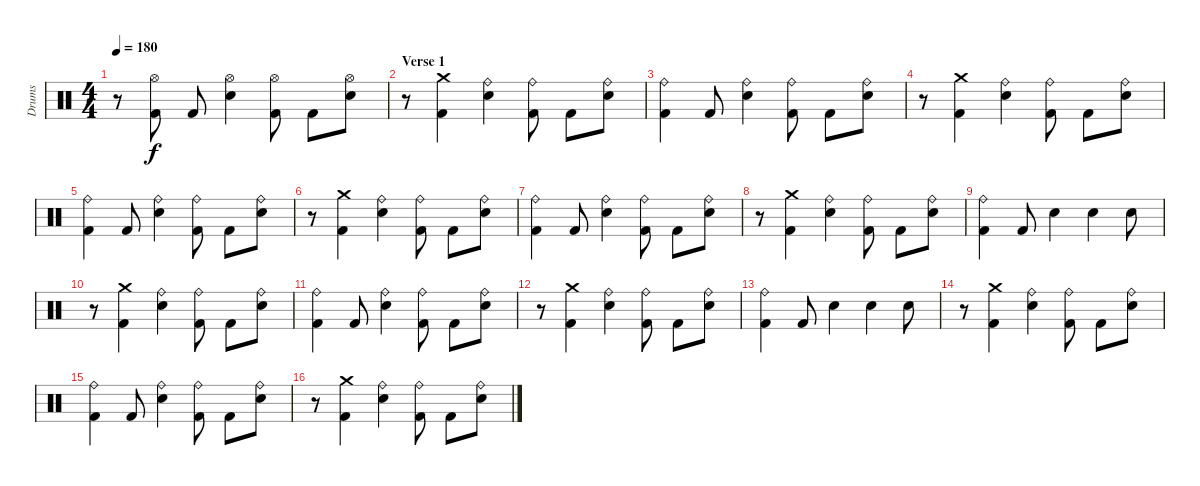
\track ("Drums" "Drums") {instrument percussion}
\staff {score}
\articulation defaults
\ts (4 4)
\tempo 180
\clef neutral
\ks c
r.8{dy f} ("Hi-Hat (open)" "Kick (hit) 2").8 "Kick (hit) 2".8 ("Hi-Hat (open)" "Snare (hit) 2").4 ("Hi-Hat (open)" "Kick (hit) 2").8 "Kick (hit) 2".8 ("Hi-Hat (open)" "Snare (hit) 2").8 |
\section ("" "Verse 1")
r.8 ("Crash medium (hit)" "Kick (hit) 2").4 ("Ride (bell)" "Snare (hit) 2").4 ("Ride (bell)" "Kick (hit) 2").8 "Kick (hit) 2".8 ("Ride (bell)" "Snare (hit) 2").8 |
("Ride (bell)" "Kick (hit) 2").4 "Kick (hit) 2".8 ("Ride (bell)" "Snare (hit) 2").4 ("Ride (bell)" "Kick (hit) 2").8 "Kick (hit) 2".8 ("Ride (bell)" "Snare (hit) 2").8 |
r.8 ("Crash medium (hit)" "Kick (hit) 2").4 ("Ride (bell)" "Snare (hit) 2").4 ("Ride (bell)" "Kick (hit) 2").8 "Kick (hit) 2".8 ("Ride (bell)" "Snare (hit) 2").8 |
("Ride (bell)" "Kick (hit) 2").4 "Kick (hit) 2".8 ("Ride (bell)" "Snare (hit) 2").4 ("Ride (bell)" "Kick (hit) 2").8 "Kick (hit) 2".8 ("Ride (bell)" "Snare (hit) 2").8 |
r.8 ("Crash medium (hit)" "Kick (hit) 2").4 ("Ride (bell)" "Snare (hit) 2").4 ("Ride (bell)" "Kick (hit) 2").8 "Kick (hit) 2".8 ("Ride (bell)" "Snare (hit) 2").8 |
("Ride (bell)" "Kick (hit) 2").4 "Kick (hit) 2".8 ("Ride (bell)" "Snare (hit) 2").4 ("Ride (bell)" "Kick (hit) 2").8 "Kick (hit) 2".8 ("Ride (bell)" "Snare (hit) 2").8 |
r.8 ("Crash medium (hit)" "Kick (hit) 2").4 ("Ride (bell)" "Snare (hit) 2").4 ("Ride (bell)" "Kick (hit) 2").8 "Kick (hit) 2".8 ("Ride (bell)" "Snare (hit) 2").8 |
("Ride (bell)" "Kick (hit) 2").4 "Kick (hit) 2".8 "Snare (hit) 2".4 "Snare (hit) 2".4 "Snare (hit) 2".8 |
r.8 ("Crash medium (hit)" "Kick (hit) 2").4 ("Ride (bell)" "Snare (hit) 2").4 ("Ride (bell)" "Kick (hit) 2").8 "Kick (hit) 2".8 ("Ride (bell)" "Snare (hit) 2").8 |
("Ride (bell)" "Kick (hit) 2").4 "Kick (hit) 2".8 ("Ride (bell)" "Snare (hit) 2").4 ("Ride (bell)" "Kick (hit) 2").8 "Kick (hit) 2".8 ("Ride (bell)" "Snare (hit) 2").8 |
r.8 ("Crash medium (hit)" "Kick (hit) 2").4 ("Ride (bell)" "Snare (hit) 2").4 ("Ride (bell)" "Kick (hit) 2").8 "Kick (hit) 2".8 ("Ride (bell)" "Snare (hit) 2").8 |
("Ride (bell)" "Kick (hit) 2").4 "Kick (hit) 2".8 "Snare (hit) 2".4 "Snare (hit) 2".4 "Snare (hit) 2".8 |
r.8 ("Crash medium (hit)" "Kick (hit) 2").4 ("Ride (bell)" "Snare (hit) 2").4 ("Ride (bell)" "Kick (hit) 2").8 "Kick (hit) 2".8 ("Ride (bell)" "Snare (hit) 2").8 |
("Ride (bell)" "Kick (hit) 2").4 "Kick (hit) 2".8 ("Ride (bell)" "Snare (hit) 2").4 ("Ride (bell)" "Kick (hit) 2").8 "Kick (hit) 2".8 ("Ride (bell)" "Snare (hit) 2").8 |
r.8 ("Crash medium (hit)" "Kick (hit) 2").4 ("Ride (bell)" "Snare (hit) 2").4 ("Ride (bell)" "Kick (hit) 2").8 "Kick (hit) 2".8 ("Ride (bell)" "Snare (hit) 2").8
